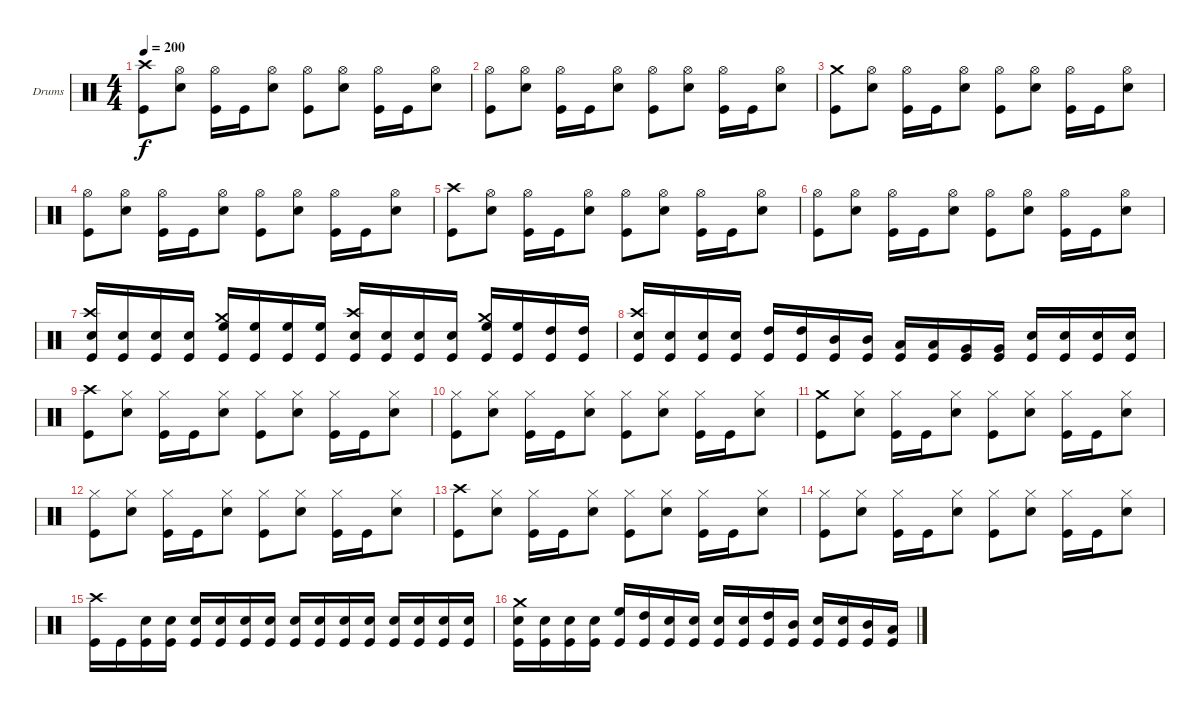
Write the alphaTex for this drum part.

\bracketExtendMode groupsimilarinstruments
\firstSystemTrackNameOrientation horizontal
\otherSystemsTrackNameOrientation horizontal
\track ("Drumkit" "Drums") {instrument percussion}
\staff {score}
\articulation defaults
\ts (4 4)
\section ("" "")
\tempo 200
\clef neutral
\ks aminor
("Kick (hit)" "Crash high (hit)").8{dy f} ("Snare (hit) 2" "Hi-Hat (open)").8 ("Kick (hit)" "Hi-Hat (open)").16 "Kick (hit)".16 ("Snare (hit) 2" "Hi-Hat (open)").8 ("Kick (hit)" "Hi-Hat (open)").8 ("Snare (hit) 2" "Hi-Hat (open)").8 ("Kick (hit)" "Hi-Hat (open)").16 "Kick (hit)".16 ("Snare (hit) 2" "Hi-Hat (open)").8 |
("Kick (hit)" "Hi-Hat (open)").8 ("Snare (hit) 2" "Hi-Hat (open)").8 ("Kick (hit)" "Hi-Hat (open)").16 "Kick (hit)".16 ("Snare (hit) 2" "Hi-Hat (open)").8 ("Kick (hit)" "Hi-Hat (open)").8 ("Snare (hit) 2" "Hi-Hat (open)").8 ("Kick (hit)" "Hi-Hat (open)").16 "Kick (hit)".16 ("Snare (hit) 2" "Hi-Hat (open)").8 |
("Kick (hit)" "Crash medium (hit)").8 ("Snare (hit) 2" "Hi-Hat (open)").8 ("Kick (hit)" "Hi-Hat (open)").16 "Kick (hit)".16 ("Snare (hit) 2" "Hi-Hat (open)").8 ("Kick (hit)" "Hi-Hat (open)").8 ("Snare (hit) 2" "Hi-Hat (open)").8 ("Kick (hit)" "Hi-Hat (open)").16 "Kick (hit)".16 ("Snare (hit) 2" "Hi-Hat (open)").8 |
("Kick (hit)" "Hi-Hat (open)").8 ("Snare (hit) 2" "Hi-Hat (open)").8 ("Kick (hit)" "Hi-Hat (open)").16 "Kick (hit)".16 ("Snare (hit) 2" "Hi-Hat (open)").8 ("Kick (hit)" "Hi-Hat (open)").8 ("Snare (hit) 2" "Hi-Hat (open)").8 ("Kick (hit)" "Hi-Hat (open)").16 "Kick (hit)".16 ("Snare (hit) 2" "Hi-Hat (open)").8 |
("Kick (hit)" "Crash high (hit)").8 ("Snare (hit) 2" "Hi-Hat (open)").8 ("Kick (hit)" "Hi-Hat (open)").16 "Kick (hit)".16 ("Snare (hit) 2" "Hi-Hat (open)").8 ("Kick (hit)" "Hi-Hat (open)").8 ("Snare (hit) 2" "Hi-Hat (open)").8 ("Kick (hit)" "Hi-Hat (open)").16 "Kick (hit)".16 ("Snare (hit) 2" "Hi-Hat (open)").8 |
("Kick (hit)" "Hi-Hat (open)").8 ("Snare (hit) 2" "Hi-Hat (open)").8 ("Kick (hit)" "Hi-Hat (open)").16 "Kick (hit)".16 ("Snare (hit) 2" "Hi-Hat (open)").8 ("Kick (hit)" "Hi-Hat (open)").8 ("Snare (hit) 2" "Hi-Hat (open)").8 ("Kick (hit)" "Hi-Hat (open)").16 "Kick (hit)".16 ("Snare (hit) 2" "Hi-Hat (open)").8 |
("Kick (hit)" "Snare (hit) 2" "Crash high (hit)").16 ("Kick (hit)" "Snare (hit) 2").16 ("Kick (hit)" "Snare (hit) 2").16 ("Kick (hit)" "Snare (hit) 2").16 ("Kick (hit)" "High Floor Tom (hit)" "Crash medium (hit)").16 ("Kick (hit)" "High Floor Tom (hit)").16 ("Kick (hit)" "High Floor Tom (hit)").16 ("Kick (hit)" "High Floor Tom (hit)").16 ("Kick (hit)" "Snare (hit) 2" "Crash high (hit)").16 ("Kick (hit)" "Snare (hit) 2").16 ("Kick (hit)" "Snare (hit) 2").16 ("Kick (hit)" "Snare (hit) 2").16 ("Kick (hit)" "High Floor Tom (hit)" "Crash medium (hit)").16 ("Kick (hit)" "High Floor Tom (hit)").16 ("Kick (hit)" "High Tom (hit)").16 ("Kick (hit)" "High Tom (hit)").16 |
("Kick (hit)" "Snare (hit) 2" "Crash high (hit)").16 ("Kick (hit)" "Snare (hit) 2").16 ("Kick (hit)" "Snare (hit) 2").16 ("Kick (hit)" "Snare (hit) 2").16 ("Kick (hit)" "High Tom (hit)").16 ("Kick (hit)" "High Tom (hit)").16 ("Kick (hit)" "Mid Tom (hit)").16 ("Kick (hit)" "Mid Tom (hit)").16 ("Kick (hit)" "Low Tom (hit)").16 ("Kick (hit)" "Low Tom (hit)").16 ("Kick (hit)" "Very Low Tom (hit)").16 ("Kick (hit)" "Very Low Tom (hit)").16 ("Kick (hit)" "Snare (hit) 2").16 ("Kick (hit)" "Snare (hit) 2").16 ("Kick (hit)" "Snare (hit) 2").16 ("Kick (hit)" "Snare (hit) 2").16 |
\section ("" "")
("Kick (hit)" "Crash high (hit)").8 ("Snare (hit) 2" "Hi-Hat (closed)").8 ("Kick (hit)" "Hi-Hat (closed)").16 "Kick (hit)".16 ("Snare (hit) 2" "Hi-Hat (closed)").8 ("Kick (hit)" "Hi-Hat (closed)").8 ("Snare (hit) 2" "Hi-Hat (closed)").8 ("Kick (hit)" "Hi-Hat (closed)").16 "Kick (hit)".16 ("Snare (hit) 2" "Hi-Hat (closed)").8 |
("Kick (hit)" "Hi-Hat (closed)").8 ("Snare (hit) 2" "Hi-Hat (closed)").8 ("Kick (hit)" "Hi-Hat (closed)").16 "Kick (hit)".16 ("Snare (hit) 2" "Hi-Hat (closed)").8 ("Kick (hit)" "Hi-Hat (closed)").8 ("Snare (hit) 2" "Hi-Hat (closed)").8 ("Kick (hit)" "Hi-Hat (closed)").16 "Kick (hit)".16 ("Snare (hit) 2" "Hi-Hat (closed)").8 |
("Kick (hit)" "Crash medium (hit)").8 ("Snare (hit) 2" "Hi-Hat (closed)").8 ("Kick (hit)" "Hi-Hat (closed)").16 "Kick (hit)".16 ("Snare (hit) 2" "Hi-Hat (closed)").8 ("Kick (hit)" "Hi-Hat (closed)").8 ("Snare (hit) 2" "Hi-Hat (closed)").8 ("Kick (hit)" "Hi-Hat (closed)").16 "Kick (hit)".16 ("Snare (hit) 2" "Hi-Hat (closed)").8 |
("Kick (hit)" "Hi-Hat (closed)").8 ("Snare (hit) 2" "Hi-Hat (closed)").8 ("Kick (hit)" "Hi-Hat (closed)").16 "Kick (hit)".16 ("Snare (hit) 2" "Hi-Hat (closed)").8 ("Kick (hit)" "Hi-Hat (closed)").8 ("Snare (hit) 2" "Hi-Hat (closed)").8 ("Kick (hit)" "Hi-Hat (closed)").16 "Kick (hit)".16 ("Snare (hit) 2" "Hi-Hat (closed)").8 |
("Kick (hit)" "Crash high (hit)").8 ("Snare (hit) 2" "Hi-Hat (closed)").8 ("Kick (hit)" "Hi-Hat (closed)").16 "Kick (hit)".16 ("Snare (hit) 2" "Hi-Hat (closed)").8 ("Kick (hit)" "Hi-Hat (closed)").8 ("Snare (hit) 2" "Hi-Hat (closed)").8 ("Kick (hit)" "Hi-Hat (closed)").16 "Kick (hit)".16 ("Snare (hit) 2" "Hi-Hat (closed)").8 |
("Kick (hit)" "Hi-Hat (closed)").8 ("Snare (hit) 2" "Hi-Hat (closed)").8 ("Kick (hit)" "Hi-Hat (closed)").16 "Kick (hit)".16 ("Snare (hit) 2" "Hi-Hat (closed)").8 ("Kick (hit)" "Hi-Hat (closed)").8 ("Snare (hit) 2" "Hi-Hat (closed)").8 ("Kick (hit)" "Hi-Hat (closed)").16 "Kick (hit)".16 ("Snare (hit) 2" "Hi-Hat (closed)").8 |
("Kick (hit)" "Crash high (hit)").16 "Kick (hit)".16 ("Kick (hit)" "Snare (hit) 2").16 ("Kick (hit)" "Snare (hit) 2").16 ("Kick (hit)" "Snare (hit) 2").16 ("Kick (hit)" "Snare (hit) 2").16 ("Kick (hit)" "Snare (hit) 2").16 ("Kick (hit)" "Snare (hit) 2").16 ("Kick (hit)" "Snare (hit) 2").16 ("Kick (hit)" "Snare (hit) 2").16 ("Kick (hit)" "Snare (hit) 2").16 ("Kick (hit)" "Snare (hit) 2").16 ("Kick (hit)" "Snare (hit) 2").16 ("Kick (hit)" "Snare (hit) 2").16 ("Kick (hit)" "Snare (hit) 2").16 ("Kick (hit)" "Snare (hit) 2").16 |
("Kick (hit)" "Snare (hit) 2" "Crash medium (hit)").16 ("Kick (hit)" "Snare (hit) 2").16 ("Kick (hit)" "Snare (hit) 2").16 ("Kick (hit)" "Snare (hit) 2").16 ("Kick (hit)" "High Floor Tom (hit)").16 ("Kick (hit)" "High Tom (hit)").16 ("Kick (hit)" "Snare (hit) 2").16 ("Kick (hit)" "Snare (hit) 2").16 ("Kick (hit)" "Snare (hit) 2").16 ("Kick (hit)" "Snare (hit) 2").16 ("Kick (hit)" "High Tom (hit)").16 ("Kick (hit)" "Mid Tom (hit)").16 ("Kick (hit)" "Snare (hit) 2").16 ("Kick (hit)" "Snare (hit) 2").16 ("Kick (hit)" "Mid Tom (hit)").16 ("Kick (hit)" "Low Tom (hit)").16
